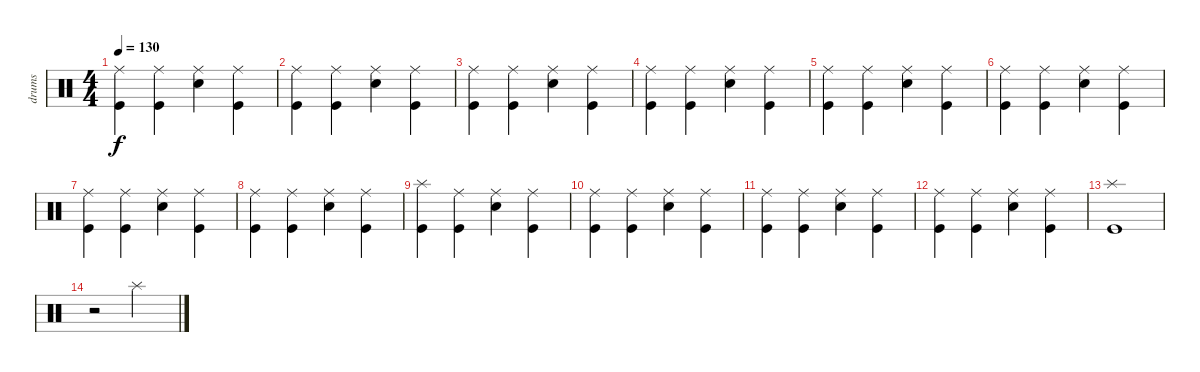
\track ("drums" "drums") {instrument percussion}
\staff {score}
\articulation defaults
\ts (4 4)
\tempo 130
\clef neutral
\ks c
("Ride (middle)" "Kick (hit)").4{dy f volume 13} ("Ride (middle)" "Kick (hit)").4 ("Ride (middle)" "Electric Snare (hit)").4 ("Ride (middle)" "Kick (hit)").4 |
("Ride (middle)" "Kick (hit)").4 ("Ride (middle)" "Kick (hit)").4 ("Ride (middle)" "Electric Snare (hit)").4 ("Ride (middle)" "Kick (hit)").4 |
("Ride (middle)" "Kick (hit)").4 ("Ride (middle)" "Kick (hit)").4 ("Ride (middle)" "Electric Snare (hit)").4 ("Ride (middle)" "Kick (hit)").4 |
("Ride (middle)" "Kick (hit)").4 ("Ride (middle)" "Kick (hit)").4 ("Ride (middle)" "Electric Snare (hit)").4 ("Ride (middle)" "Kick (hit)").4 |
("Ride (middle)" "Kick (hit)").4 ("Ride (middle)" "Kick (hit)").4 ("Ride (middle)" "Electric Snare (hit)").4 ("Ride (middle)" "Kick (hit)").4 |
("Ride (middle)" "Kick (hit)").4 ("Ride (middle)" "Kick (hit)").4 ("Ride (middle)" "Electric Snare (hit)").4 ("Ride (middle)" "Kick (hit)").4 |
("Ride (middle)" "Kick (hit)").4 ("Ride (middle)" "Kick (hit)").4 ("Ride (middle)" "Electric Snare (hit)").4 ("Ride (middle)" "Kick (hit)").4 |
("Ride (middle)" "Kick (hit)").4 ("Ride (middle)" "Kick (hit)").4 ("Ride (middle)" "Electric Snare (hit)").4 ("Ride (middle)" "Kick (hit)").4 |
("Splash (hit)" "Kick (hit)").4 ("Ride (middle)" "Kick (hit)").4 ("Ride (middle)" "Electric Snare (hit)").4 ("Ride (middle)" "Kick (hit)").4 |
("Ride (middle)" "Kick (hit)").4 ("Ride (middle)" "Kick (hit)").4 ("Ride (middle)" "Electric Snare (hit)").4 ("Ride (middle)" "Kick (hit)").4 |
("Ride (middle)" "Kick (hit)").4 ("Ride (middle)" "Kick (hit)").4 ("Ride (middle)" "Electric Snare (hit)").4 ("Ride (middle)" "Kick (hit)").4 |
("Ride (middle)" "Kick (hit)").4 ("Ride (middle)" "Kick (hit)").4 ("Ride (middle)" "Electric Snare (hit)").4 ("Ride (middle)" "Kick (hit)").4 |
("Kick (hit)" "Splash (hit)").1 |
r.2 "Splash (hit)".2
